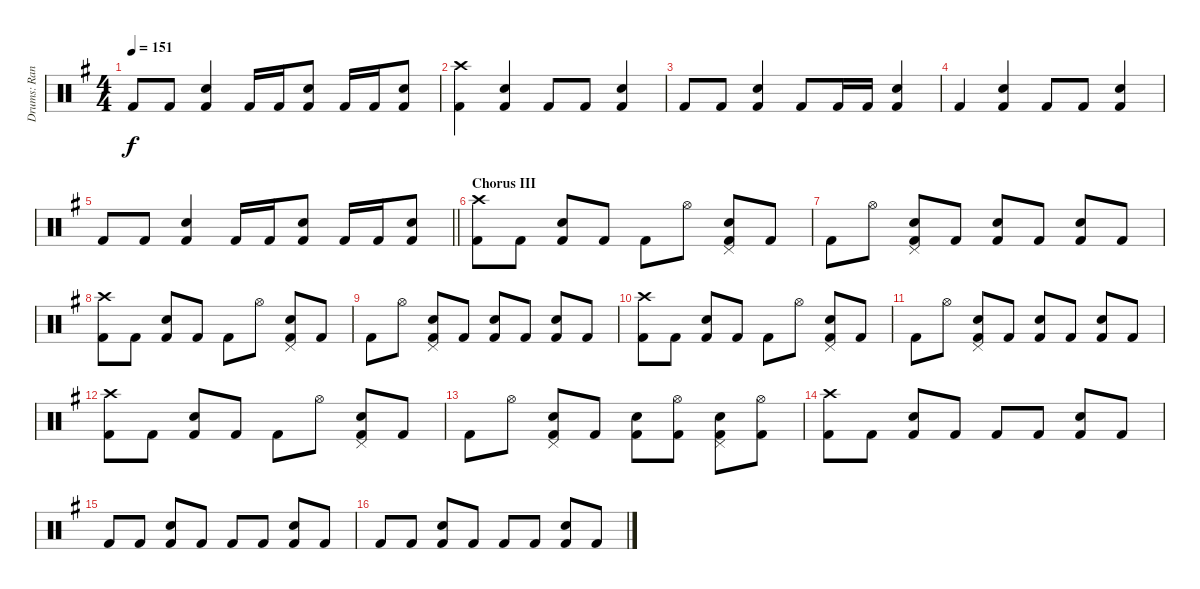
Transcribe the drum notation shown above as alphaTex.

\track ("Drums: Randy" "Drums: Ran") {instrument percussion}
\staff {score}
\articulation defaults
\ts (4 4)
\tempo 151
\clef neutral
\ks g "Kick (hit) 2".8{dy f} "Kick (hit) 2".8
("Snare (hit) 2" "Kick (hit) 2").4 "Kick (hit) 2".16 "Kick (hit) 2".16 ("Snare (hit) 2" "Kick (hit) 2").8 "Kick (hit) 2".16 "Kick (hit) 2".16 ("Snare (hit) 2" "Kick (hit) 2").8 |
("Crash high (hit)" "Kick (hit) 2").4 ("Snare (hit) 2" "Kick (hit) 2").4 "Kick (hit) 2".8 "Kick (hit) 2".8 ("Snare (hit) 2" "Kick (hit) 2").4 |
"Kick (hit) 2".8 "Kick (hit) 2".8 ("Snare (hit) 2" "Kick (hit) 2").4 "Kick (hit) 2".8 "Kick (hit) 2".16 "Kick (hit) 2".16 ("Snare (hit) 2" "Kick (hit) 2").4 |
"Kick (hit) 2".4 ("Snare (hit) 2" "Kick (hit) 2").4 "Kick (hit) 2".8 "Kick (hit) 2".8 ("Snare (hit) 2" "Kick (hit) 2").4 |
\barLineRight lightlight "Kick (hit) 2".8 "Kick (hit) 2".8
("Snare (hit) 2" "Kick (hit) 2").4 "Kick (hit) 2".16 "Kick (hit) 2".16 ("Snare (hit) 2" "Kick (hit) 2").8 "Kick (hit) 2".16 "Kick (hit) 2".16 ("Snare (hit) 2" "Kick (hit) 2").8 |
\section ("" "Chorus III")
("Crash high (hit)" "Kick (hit) 2").8 "Kick (hit) 2".8 ("Snare (hit) 2" "Kick (hit) 2").8 "Kick (hit) 2".8 "Kick (hit) 2".8 "Hi-Hat (open)".8 ("Pedal Hi-Hat (hit)" "Snare (hit) 2" "Kick (hit) 2").8 "Kick (hit) 2".8 |
"Kick (hit) 2".8 "Hi-Hat (open)".8 ("Pedal Hi-Hat (hit)" "Snare (hit) 2" "Kick (hit) 2").8 "Kick (hit) 2".8 ("Snare (hit) 2" "Kick (hit) 2").8 "Kick (hit) 2".8 ("Snare (hit) 2" "Kick (hit) 2").8 "Kick (hit) 2".8 |
("Crash high (hit)" "Kick (hit) 2").8 "Kick (hit) 2".8 ("Snare (hit) 2" "Kick (hit) 2").8 "Kick (hit) 2".8 "Kick (hit) 2".8 "Hi-Hat (open)".8 ("Pedal Hi-Hat (hit)" "Snare (hit) 2" "Kick (hit) 2").8 "Kick (hit) 2".8 |
"Kick (hit) 2".8 "Hi-Hat (open)".8 ("Pedal Hi-Hat (hit)" "Snare (hit) 2" "Kick (hit) 2").8 "Kick (hit) 2".8 ("Snare (hit) 2" "Kick (hit) 2").8 "Kick (hit) 2".8 ("Snare (hit) 2" "Kick (hit) 2").8 "Kick (hit) 2".8 |
("Crash high (hit)" "Kick (hit) 2").8 "Kick (hit) 2".8 ("Snare (hit) 2" "Kick (hit) 2").8 "Kick (hit) 2".8 "Kick (hit) 2".8 "Hi-Hat (open)".8 ("Pedal Hi-Hat (hit)" "Snare (hit) 2" "Kick (hit) 2").8 "Kick (hit) 2".8 |
"Kick (hit) 2".8 "Hi-Hat (open)".8 ("Pedal Hi-Hat (hit)" "Snare (hit) 2" "Kick (hit) 2").8 "Kick (hit) 2".8 ("Snare (hit) 2" "Kick (hit) 2").8 "Kick (hit) 2".8 ("Snare (hit) 2" "Kick (hit) 2").8 "Kick (hit) 2".8 |
("Crash high (hit)" "Kick (hit) 2").8 "Kick (hit) 2".8 ("Snare (hit) 2" "Kick (hit) 2").8 "Kick (hit) 2".8 "Kick (hit) 2".8 "Hi-Hat (open)".8 ("Pedal Hi-Hat (hit)" "Snare (hit) 2" "Kick (hit) 2").8 "Kick (hit) 2".8 |
"Kick (hit) 2".8 "Hi-Hat (open)".8 ("Pedal Hi-Hat (hit)" "Snare (hit) 2" "Kick (hit) 2").8 "Kick (hit) 2".8 ("Snare (hit) 2" "Kick (hit) 2").8 ("Hi-Hat (open)" "Kick (hit) 2").8 ("Pedal Hi-Hat (hit)" "Snare (hit) 2" "Kick (hit) 2").8 ("Hi-Hat (open)" "Kick (hit) 2").8 |
("Crash high (hit)" "Kick (hit) 2").8 "Kick (hit) 2".8 ("Snare (hit) 2" "Kick (hit) 2").8 "Kick (hit) 2".8 "Kick (hit) 2".8 "Kick (hit) 2".8 ("Snare (hit) 2" "Kick (hit) 2").8 "Kick (hit) 2".8 |
"Kick (hit) 2".8 "Kick (hit) 2".8 ("Snare (hit) 2" "Kick (hit) 2").8 "Kick (hit) 2".8 "Kick (hit) 2".8 "Kick (hit) 2".8 ("Snare (hit) 2" "Kick (hit) 2").8 "Kick (hit) 2".8 |
"Kick (hit) 2".8 "Kick (hit) 2".8 ("Snare (hit) 2" "Kick (hit) 2").8 "Kick (hit) 2".8 "Kick (hit) 2".8 "Kick (hit) 2".8 ("Snare (hit) 2" "Kick (hit) 2").8 "Kick (hit) 2".8
